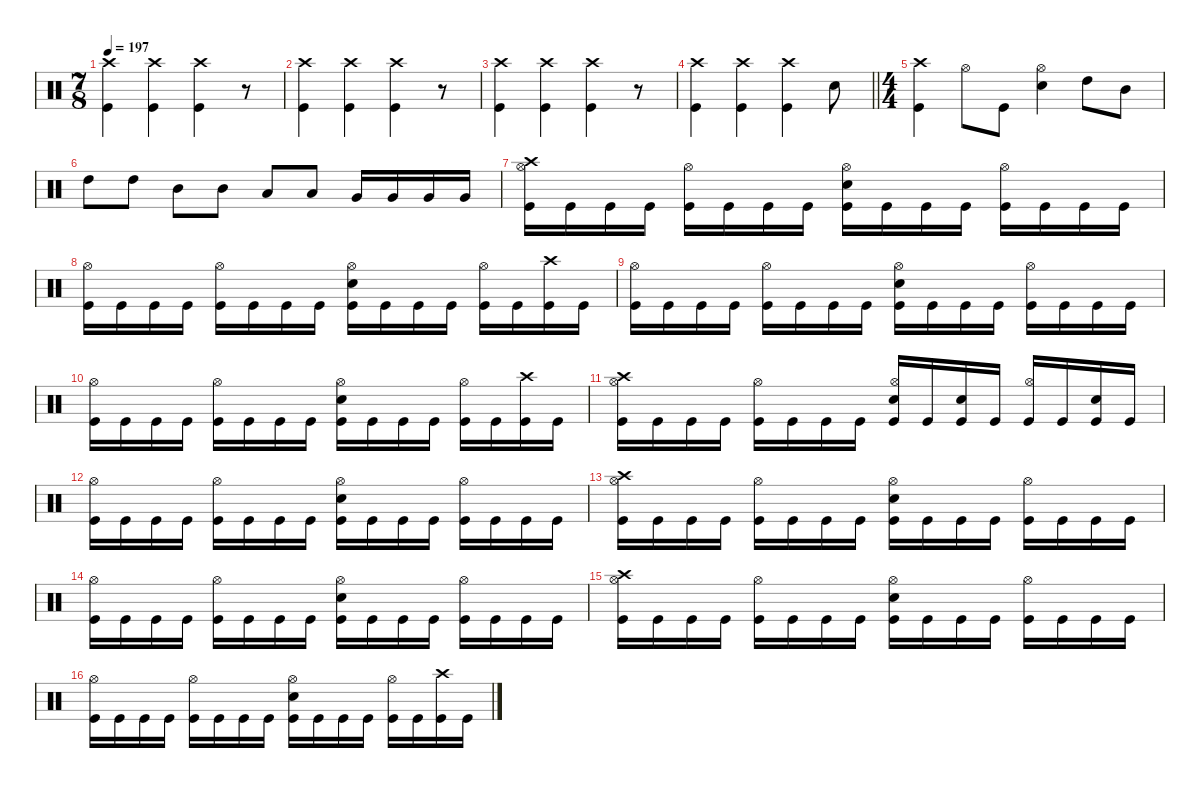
\defaultSystemsLayout 4
\hideDynamics
\bracketExtendMode nobrackets
\singleTrackTrackNamePolicy hidden
\multiTrackTrackNamePolicy hidden
\firstSystemTrackNameMode fullname
\firstSystemTrackNameOrientation horizontal
\otherSystemsTrackNameOrientation horizontal
\track ("Drums" "drm.") {defaultSystemsLayout 4 instrument percussion}
\staff {score}
\articulation defaults
\ts (7 8)
\tempo 197
\clef neutral
\ks c
("Crash high (hit)" "Kick (hit)").4{dy f beam Down} ("Crash high (hit)" "Kick (hit)").4{beam Down} ("Crash high (hit)" "Kick (hit)").4{beam Down} r.8{beam Down} |
("Crash high (hit)" "Kick (hit)").4{beam Down} ("Crash high (hit)" "Kick (hit)").4{beam Down} ("Crash high (hit)" "Kick (hit)").4{beam Down} r.8{beam Down} |
("Crash high (hit)" "Kick (hit)").4{beam Down} ("Crash high (hit)" "Kick (hit)").4{beam Down} ("Crash high (hit)" "Kick (hit)").4{beam Down} r.8{beam Down} |
\barLineRight lightlight
("Crash high (hit)" "Kick (hit)").4{beam Down} ("Crash high (hit)" "Kick (hit)").4{beam Down} ("Crash high (hit)" "Kick (hit)").4{beam Down} "Snare (hit) 2".8{beam Down} |
\ts (4 4)
\beaming (8 2 2 2 2)
("Crash high (hit)" "Kick (hit)").4{beam Down} "Hi-Hat (open)".8{beam Down} "Kick (hit)".8{beam Down} ("Hi-Hat (open)" "Snare (hit) 2").4{beam Down} "High Tom (hit)".8{beam Down beam merge} "Mid Tom (hit)".8{beam Down} |
"High Tom (hit)".8{beam Down} "High Tom (hit)".8{beam Down} "Mid Tom (hit)".8{beam Down} "Mid Tom (hit)".8{beam Down} "Low Tom (hit)".8{beam Up} "Low Tom (hit)".8{beam Up beam split} "Very Low Tom (hit)".16{beam Up} "Very Low Tom (hit)".16{beam Up beam merge} "Very Low Tom (hit)".16{beam Up beam merge} "Very Low Tom (hit)".16{beam Up} |
("Crash high (hit)" "Hi-Hat (open)" "Kick (hit)").16{beam Down} "Kick (hit)".16{beam Down} "Kick (hit)".16{beam Down} "Kick (hit)".16{beam Down} ("Hi-Hat (open)" "Kick (hit)").16{beam Down} "Kick (hit)".16{beam Down} "Kick (hit)".16{beam Down} "Kick (hit)".16{beam Down} ("Hi-Hat (open)" "Snare (hit) 2" "Kick (hit)").16{beam Down} "Kick (hit)".16{beam Down} "Kick (hit)".16{beam Down} "Kick (hit)".16{beam Down} ("Hi-Hat (open)" "Kick (hit)").16{beam Down} "Kick (hit)".16{beam Down} "Kick (hit)".16{beam Down} "Kick (hit)".16{beam Down} |
("Hi-Hat (open)" "Kick (hit)").16{beam Down} "Kick (hit)".16{beam Down} "Kick (hit)".16{beam Down} "Kick (hit)".16{beam Down} ("Hi-Hat (open)" "Kick (hit)").16{beam Down} "Kick (hit)".16{beam Down} "Kick (hit)".16{beam Down} "Kick (hit)".16{beam Down} ("Hi-Hat (open)" "Snare (hit) 2" "Kick (hit)").16{beam Down} "Kick (hit)".16{beam Down} "Kick (hit)".16{beam Down} "Kick (hit)".16{beam Down} ("Hi-Hat (open)" "Kick (hit)").16{beam Down} "Kick (hit)".16{beam Down} ("Crash high (hit)" "Kick (hit)").16{beam Down} "Kick (hit)".16{beam Down} |
("Hi-Hat (open)" "Kick (hit)").16{beam Down} "Kick (hit)".16{beam Down} "Kick (hit)".16{beam Down} "Kick (hit)".16{beam Down} ("Hi-Hat (open)" "Kick (hit)").16{beam Down} "Kick (hit)".16{beam Down} "Kick (hit)".16{beam Down} "Kick (hit)".16{beam Down} ("Hi-Hat (open)" "Snare (hit) 2" "Kick (hit)").16{beam Down} "Kick (hit)".16{beam Down} "Kick (hit)".16{beam Down} "Kick (hit)".16{beam Down} ("Hi-Hat (open)" "Kick (hit)").16{beam Down} "Kick (hit)".16{beam Down} "Kick (hit)".16{beam Down} "Kick (hit)".16{beam Down} |
("Hi-Hat (open)" "Kick (hit)").16{beam Down} "Kick (hit)".16{beam Down} "Kick (hit)".16{beam Down} "Kick (hit)".16{beam Down} ("Hi-Hat (open)" "Kick (hit)").16{beam Down} "Kick (hit)".16{beam Down} "Kick (hit)".16{beam Down} "Kick (hit)".16{beam Down} ("Hi-Hat (open)" "Snare (hit) 2" "Kick (hit)").16{beam Down} "Kick (hit)".16{beam Down} "Kick (hit)".16{beam Down} "Kick (hit)".16{beam Down} ("Hi-Hat (open)" "Kick (hit)").16{beam Down} "Kick (hit)".16{beam Down} ("Crash high (hit)" "Kick (hit)").16{beam Down} "Kick (hit)".16{beam Down} |
("Crash high (hit)" "Hi-Hat (open)" "Kick (hit)").16{beam Down} "Kick (hit)".16{beam Down} "Kick (hit)".16{beam Down} "Kick (hit)".16{beam Down} ("Hi-Hat (open)" "Kick (hit)").16{beam Down} "Kick (hit)".16{beam Down} "Kick (hit)".16{beam Down} "Kick (hit)".16{beam Down} ("Hi-Hat (open)" "Snare (hit) 2" "Kick (hit)").16{beam Up} "Kick (hit)".16{beam Up} ("Snare (hit) 2" "Kick (hit)").16{beam Up} "Kick (hit)".16{beam Up} ("Hi-Hat (open)" "Kick (hit)").16{beam Up} "Kick (hit)".16{beam Up} ("Snare (hit) 2" "Kick (hit)").16{beam Up} "Kick (hit)".16{beam Up} |
("Hi-Hat (open)" "Kick (hit)").16{beam Down} "Kick (hit)".16{beam Down} "Kick (hit)".16{beam Down} "Kick (hit)".16{beam Down} ("Hi-Hat (open)" "Kick (hit)").16{beam Down} "Kick (hit)".16{beam Down} "Kick (hit)".16{beam Down} "Kick (hit)".16{beam Down} ("Hi-Hat (open)" "Snare (hit) 2" "Kick (hit)").16{beam Down} "Kick (hit)".16{beam Down} "Kick (hit)".16{beam Down} "Kick (hit)".16{beam Down} ("Hi-Hat (open)" "Kick (hit)").16{beam Down} "Kick (hit)".16{beam Down} "Kick (hit)".16{beam Down} "Kick (hit)".16{beam Down} |
("Crash high (hit)" "Hi-Hat (open)" "Kick (hit)").16{beam Down} "Kick (hit)".16{beam Down} "Kick (hit)".16{beam Down} "Kick (hit)".16{beam Down} ("Hi-Hat (open)" "Kick (hit)").16{beam Down} "Kick (hit)".16{beam Down} "Kick (hit)".16{beam Down} "Kick (hit)".16{beam Down} ("Hi-Hat (open)" "Snare (hit) 2" "Kick (hit)").16{beam Down} "Kick (hit)".16{beam Down} "Kick (hit)".16{beam Down} "Kick (hit)".16{beam Down} ("Hi-Hat (open)" "Kick (hit)").16{beam Down} "Kick (hit)".16{beam Down} "Kick (hit)".16{beam Down} "Kick (hit)".16{beam Down} |
("Hi-Hat (open)" "Kick (hit)").16{beam Down} "Kick (hit)".16{beam Down} "Kick (hit)".16{beam Down} "Kick (hit)".16{beam Down} ("Hi-Hat (open)" "Kick (hit)").16{beam Down} "Kick (hit)".16{beam Down} "Kick (hit)".16{beam Down} "Kick (hit)".16{beam Down} ("Hi-Hat (open)" "Snare (hit) 2" "Kick (hit)").16{beam Down} "Kick (hit)".16{beam Down} "Kick (hit)".16{beam Down} "Kick (hit)".16{beam Down} ("Hi-Hat (open)" "Kick (hit)").16{beam Down} "Kick (hit)".16{beam Down} "Kick (hit)".16{beam Down} "Kick (hit)".16{beam Down} |
("Crash high (hit)" "Hi-Hat (open)" "Kick (hit)").16{beam Down} "Kick (hit)".16{beam Down} "Kick (hit)".16{beam Down} "Kick (hit)".16{beam Down} ("Hi-Hat (open)" "Kick (hit)").16{beam Down} "Kick (hit)".16{beam Down} "Kick (hit)".16{beam Down} "Kick (hit)".16{beam Down} ("Hi-Hat (open)" "Snare (hit) 2" "Kick (hit)").16{beam Down} "Kick (hit)".16{beam Down} "Kick (hit)".16{beam Down} "Kick (hit)".16{beam Down} ("Hi-Hat (open)" "Kick (hit)").16{beam Down} "Kick (hit)".16{beam Down} "Kick (hit)".16{beam Down} "Kick (hit)".16{beam Down} |
("Hi-Hat (open)" "Kick (hit)").16{beam Down} "Kick (hit)".16{beam Down} "Kick (hit)".16{beam Down} "Kick (hit)".16{beam Down} ("Hi-Hat (open)" "Kick (hit)").16{beam Down} "Kick (hit)".16{beam Down} "Kick (hit)".16{beam Down} "Kick (hit)".16{beam Down} ("Hi-Hat (open)" "Snare (hit) 2" "Kick (hit)").16{beam Down} "Kick (hit)".16{beam Down} "Kick (hit)".16{beam Down} "Kick (hit)".16{beam Down} ("Hi-Hat (open)" "Kick (hit)").16{beam Down} "Kick (hit)".16{beam Down} ("Crash high (hit)" "Kick (hit)").16{beam Down} "Kick (hit)".16{beam Down}
